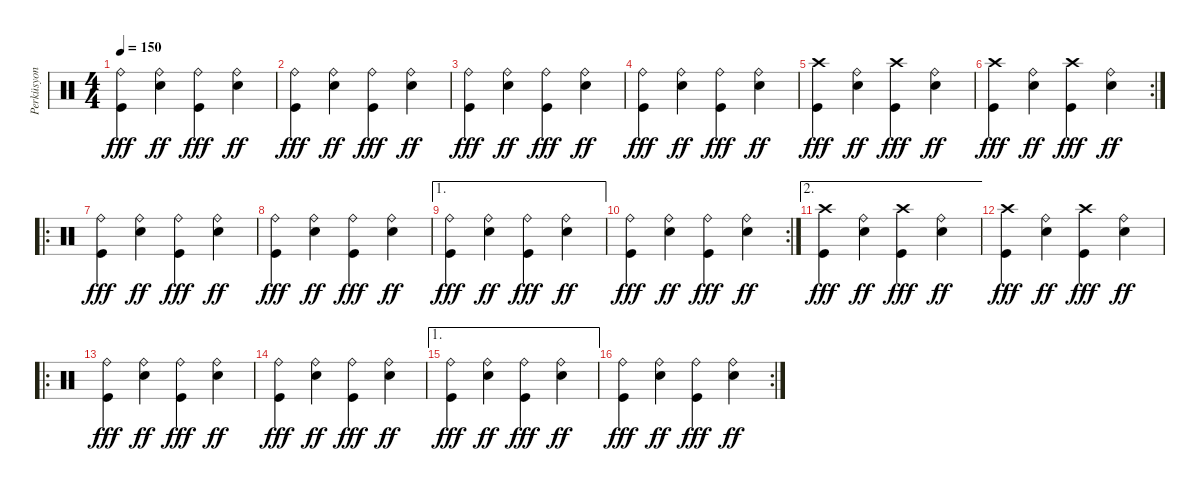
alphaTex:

\track ("Perküsyon" "Perküsyon") {instrument percussion}
\staff {score}
\articulation defaults
\ts (4 4)
\tempo 150
\clef neutral
\ks c
("Ride (bell)" "Kick (hit)").4{dy fff} ("Ride (bell)" "Snare (hit) 2").4{dy ff} ("Ride (bell)" "Kick (hit)").4{dy fff} ("Ride (bell)" "Snare (hit) 2").4{dy ff} |
("Ride (bell)" "Kick (hit)").4{dy fff} ("Ride (bell)" "Snare (hit) 2").4{dy ff} ("Ride (bell)" "Kick (hit)").4{dy fff} ("Ride (bell)" "Snare (hit) 2").4{dy ff} |
("Ride (bell)" "Kick (hit)").4{dy fff} ("Ride (bell)" "Snare (hit) 2").4{dy ff} ("Ride (bell)" "Kick (hit)").4{dy fff} ("Ride (bell)" "Snare (hit) 2").4{dy ff} |
("Ride (bell)" "Kick (hit)").4{dy fff} ("Ride (bell)" "Snare (hit) 2").4{dy ff} ("Ride (bell)" "Kick (hit)").4{dy fff} ("Ride (bell)" "Snare (hit) 2").4{dy ff} |
("Crash high (hit)" "Kick (hit)").4{dy fff} ("Ride (bell)" "Snare (hit) 2").4{dy ff} ("Crash high (hit)" "Kick (hit)").4{dy fff} ("Ride (bell)" "Snare (hit) 2").4{dy ff} |
\rc 2
("Crash high (hit)" "Kick (hit)").4{dy fff} ("Ride (bell)" "Snare (hit) 2").4{dy ff} ("Crash high (hit)" "Kick (hit)").4{dy fff} ("Ride (bell)" "Snare (hit) 2").4{dy ff} |
\ro
("Ride (bell)" "Kick (hit)").4{dy fff} ("Ride (bell)" "Snare (hit) 2").4{dy ff} ("Ride (bell)" "Kick (hit)").4{dy fff} ("Ride (bell)" "Snare (hit) 2").4{dy ff} |
("Ride (bell)" "Kick (hit)").4{dy fff} ("Ride (bell)" "Snare (hit) 2").4{dy ff} ("Ride (bell)" "Kick (hit)").4{dy fff} ("Ride (bell)" "Snare (hit) 2").4{dy ff} |
\ae 1
("Ride (bell)" "Kick (hit)").4{dy fff} ("Ride (bell)" "Snare (hit) 2").4{dy ff} ("Ride (bell)" "Kick (hit)").4{dy fff} ("Ride (bell)" "Snare (hit) 2").4{dy ff} |
\rc 2
("Ride (bell)" "Kick (hit)").4{dy fff} ("Ride (bell)" "Snare (hit) 2").4{dy ff} ("Ride (bell)" "Kick (hit)").4{dy fff} ("Ride (bell)" "Snare (hit) 2").4{dy ff} |
\ae 2
("Crash high (hit)" "Kick (hit)").4{dy fff} ("Ride (bell)" "Snare (hit) 2").4{dy ff} ("Crash high (hit)" "Kick (hit)").4{dy fff} ("Ride (bell)" "Snare (hit) 2").4{dy ff} |
("Crash high (hit)" "Kick (hit)").4{dy fff} ("Ride (bell)" "Snare (hit) 2").4{dy ff} ("Crash high (hit)" "Kick (hit)").4{dy fff} ("Ride (bell)" "Snare (hit) 2").4{dy ff} |
\ro
("Ride (bell)" "Kick (hit)").4{dy fff} ("Ride (bell)" "Snare (hit) 2").4{dy ff} ("Ride (bell)" "Kick (hit)").4{dy fff} ("Ride (bell)" "Snare (hit) 2").4{dy ff} |
("Ride (bell)" "Kick (hit)").4{dy fff} ("Ride (bell)" "Snare (hit) 2").4{dy ff} ("Ride (bell)" "Kick (hit)").4{dy fff} ("Ride (bell)" "Snare (hit) 2").4{dy ff} |
\ae 1
("Ride (bell)" "Kick (hit)").4{dy fff} ("Ride (bell)" "Snare (hit) 2").4{dy ff} ("Ride (bell)" "Kick (hit)").4{dy fff} ("Ride (bell)" "Snare (hit) 2").4{dy ff} |
\rc 2
("Ride (bell)" "Kick (hit)").4{dy fff} ("Ride (bell)" "Snare (hit) 2").4{dy ff} ("Ride (bell)" "Kick (hit)").4{dy fff} ("Ride (bell)" "Snare (hit) 2").4{dy ff}
